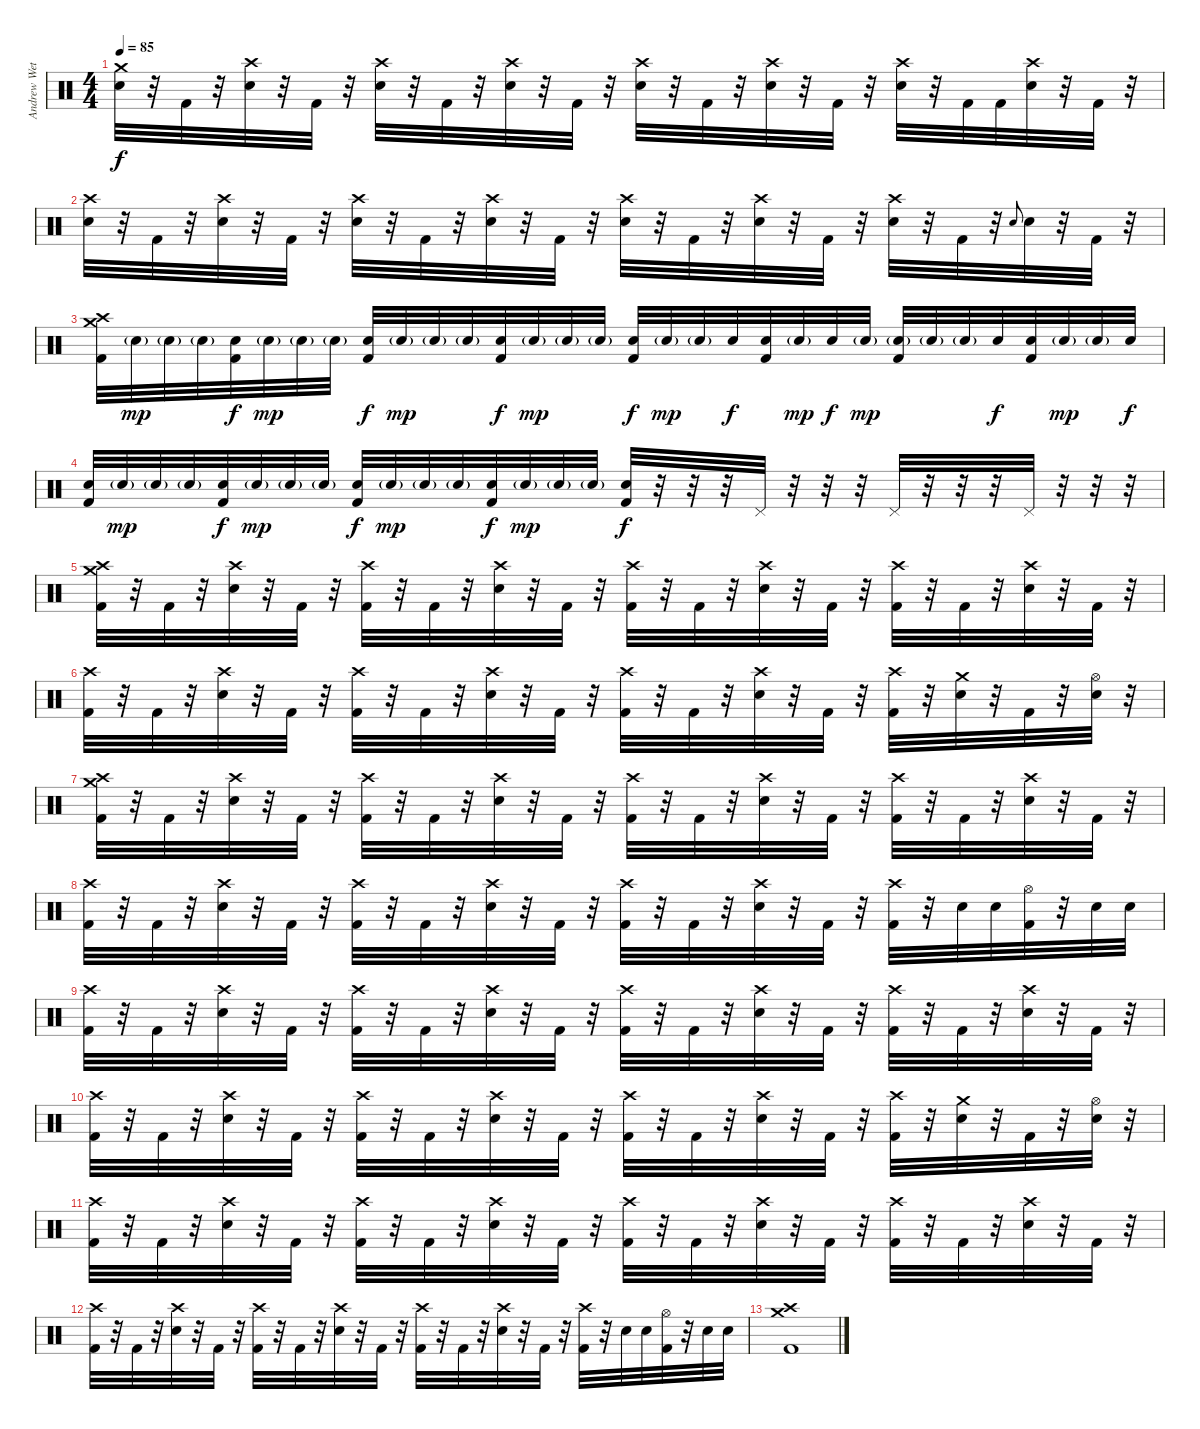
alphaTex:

\track ("Andrew Wetzel" "Andrew Wet") {instrument percussion}
\staff {score}
\articulation defaults
\ts (4 4)
\tempo 85
\clef neutral
\ks c
("Crash medium (hit)" "Electric Snare (hit)").32{dy f} r.32 "Kick (hit) 2".32 r.32 ("Crash high (hit)" "Electric Snare (hit)").32 r.32 "Kick (hit) 2".32 r.32 ("Crash high (hit)" "Electric Snare (hit)").32 r.32 "Kick (hit) 2".32 r.32 ("Crash high (hit)" "Electric Snare (hit)").32 r.32 "Kick (hit) 2".32 r.32 ("Crash high (hit)" "Electric Snare (hit)").32 r.32 "Kick (hit) 2".32 r.32 ("Crash high (hit)" "Electric Snare (hit)").32 r.32 "Kick (hit) 2".32 r.32 ("Crash high (hit)" "Electric Snare (hit)").32 r.32 "Kick (hit) 2".32 "Kick (hit) 2".32 ("Crash high (hit)" "Electric Snare (hit)").32 r.32 "Kick (hit) 2".32 r.32 |
("Crash high (hit)" "Electric Snare (hit)").32 r.32 "Kick (hit) 2".32 r.32 ("Crash high (hit)" "Electric Snare (hit)").32 r.32 "Kick (hit) 2".32 r.32 ("Crash high (hit)" "Electric Snare (hit)").32 r.32 "Kick (hit) 2".32 r.32 ("Crash high (hit)" "Electric Snare (hit)").32 r.32 "Kick (hit) 2".32 r.32 ("Crash high (hit)" "Electric Snare (hit)").32 r.32 "Kick (hit) 2".32 r.32 ("Crash high (hit)" "Electric Snare (hit)").32 r.32 "Kick (hit) 2".32 r.32 ("Crash high (hit)" "Electric Snare (hit)").32 r.32 "Kick (hit) 2".32 r.32 "Electric Snare (hit)".8{gr onbeat} "Electric Snare (hit)".32 r.32 "Kick (hit) 2".32 r.32 |
("Crash medium (hit)" "Crash high (hit)" "Kick (hit) 2").32 "Electric Snare (hit)"{g}.32{dy mp} "Electric Snare (hit)"{g}.32 "Electric Snare (hit)"{g}.32 ("Electric Snare (hit)" "Kick (hit) 2").32{dy f} "Electric Snare (hit)"{g}.32{dy mp} "Electric Snare (hit)"{g}.32 "Electric Snare (hit)"{g}.32 ("Electric Snare (hit)" "Kick (hit) 2").32{dy f} "Electric Snare (hit)"{g}.32{dy mp} "Electric Snare (hit)"{g}.32 "Electric Snare (hit)"{g}.32 ("Electric Snare (hit)" "Kick (hit) 2").32{dy f} "Electric Snare (hit)"{g}.32{dy mp} "Electric Snare (hit)"{g}.32 "Electric Snare (hit)"{g}.32 ("Electric Snare (hit)" "Kick (hit) 2").32{dy f} "Electric Snare (hit)"{g}.32{dy mp} "Electric Snare (hit)"{g}.32 "Electric Snare (hit)".32{dy f} ("Electric Snare (hit)" "Kick (hit) 2").32 "Electric Snare (hit)"{g}.32{dy mp} "Electric Snare (hit)".32{dy f} "Electric Snare (hit)"{g}.32{dy mp} ("Electric Snare (hit)"{g} "Kick (hit) 2").32 "Electric Snare (hit)"{g}.32 "Electric Snare (hit)"{g}.32 "Electric Snare (hit)".32{dy f} ("Electric Snare (hit)" "Kick (hit) 2").32 "Electric Snare (hit)"{g}.32{dy mp} "Electric Snare (hit)"{g}.32 "Electric Snare (hit)".32{dy f} |
("Electric Snare (hit)" "Kick (hit) 2").32 "Electric Snare (hit)"{g}.32{dy mp} "Electric Snare (hit)"{g}.32 "Electric Snare (hit)"{g}.32 ("Electric Snare (hit)" "Kick (hit) 2").32{dy f} "Electric Snare (hit)"{g}.32{dy mp} "Electric Snare (hit)"{g}.32 "Electric Snare (hit)"{g}.32 ("Electric Snare (hit)" "Kick (hit) 2").32{dy f} "Electric Snare (hit)"{g}.32{dy mp} "Electric Snare (hit)"{g}.32 "Electric Snare (hit)"{g}.32 ("Electric Snare (hit)" "Kick (hit) 2").32{dy f} "Electric Snare (hit)"{g}.32{dy mp} "Electric Snare (hit)"{g}.32 "Electric Snare (hit)"{g}.32 ("Electric Snare (hit)" "Kick (hit) 2").32{dy f} r.32 r.32 r.32 "Pedal Hi-Hat (hit)".32 r.32 r.32 r.32 "Pedal Hi-Hat (hit)".32 r.32 r.32 r.32 "Pedal Hi-Hat (hit)".32 r.32 r.32 r.32 |
("Crash medium (hit)" "Crash high (hit)" "Kick (hit) 2").32 r.32 "Kick (hit) 2".32 r.32 ("Crash high (hit)" "Electric Snare (hit)").32 r.32 "Kick (hit) 2".32 r.32 ("Crash high (hit)" "Kick (hit) 2").32 r.32 "Kick (hit) 2".32 r.32 ("Crash high (hit)" "Electric Snare (hit)").32 r.32 "Kick (hit) 2".32 r.32 ("Crash high (hit)" "Kick (hit) 2").32 r.32 "Kick (hit) 2".32 r.32 ("Crash high (hit)" "Electric Snare (hit)").32 r.32 "Kick (hit) 2".32 r.32 ("Crash high (hit)" "Kick (hit) 2").32 r.32 "Kick (hit) 2".32 r.32 ("Crash high (hit)" "Electric Snare (hit)").32 r.32 "Kick (hit) 2".32 r.32 |
("Crash high (hit)" "Kick (hit) 2").32 r.32 "Kick (hit) 2".32 r.32 ("Crash high (hit)" "Electric Snare (hit)").32 r.32 "Kick (hit) 2".32 r.32 ("Crash high (hit)" "Kick (hit) 2").32 r.32 "Kick (hit) 2".32 r.32 ("Crash high (hit)" "Electric Snare (hit)").32 r.32 "Kick (hit) 2".32 r.32 ("Crash high (hit)" "Kick (hit) 2").32 r.32 "Kick (hit) 2".32 r.32 ("Crash high (hit)" "Electric Snare (hit)").32 r.32 "Kick (hit) 2".32 r.32 ("Crash high (hit)" "Kick (hit) 2").32 r.32 ("Crash medium (hit)" "Electric Snare (hit)").32 r.32 "Kick (hit) 2".32 r.32 ("Hi-Hat (open)" "Electric Snare (hit)").32 r.32 |
("Crash medium (hit)" "Crash high (hit)" "Kick (hit) 2").32 r.32 "Kick (hit) 2".32 r.32 ("Crash high (hit)" "Electric Snare (hit)").32 r.32 "Kick (hit) 2".32 r.32 ("Crash high (hit)" "Kick (hit) 2").32 r.32 "Kick (hit) 2".32 r.32 ("Crash high (hit)" "Electric Snare (hit)").32 r.32 "Kick (hit) 2".32 r.32 ("Crash high (hit)" "Kick (hit) 2").32 r.32 "Kick (hit) 2".32 r.32 ("Crash high (hit)" "Electric Snare (hit)").32 r.32 "Kick (hit) 2".32 r.32 ("Crash high (hit)" "Kick (hit) 2").32 r.32 "Kick (hit) 2".32 r.32 ("Crash high (hit)" "Electric Snare (hit)").32 r.32 "Kick (hit) 2".32 r.32 |
("Crash high (hit)" "Kick (hit) 2").32 r.32 "Kick (hit) 2".32 r.32 ("Crash high (hit)" "Electric Snare (hit)").32 r.32 "Kick (hit) 2".32 r.32 ("Crash high (hit)" "Kick (hit) 2").32 r.32 "Kick (hit) 2".32 r.32 ("Crash high (hit)" "Electric Snare (hit)").32 r.32 "Kick (hit) 2".32 r.32 ("Crash high (hit)" "Kick (hit) 2").32 r.32 "Kick (hit) 2".32 r.32 ("Crash high (hit)" "Electric Snare (hit)").32 r.32 "Kick (hit) 2".32 r.32 ("Crash high (hit)" "Kick (hit) 2").32 r.32 "Electric Snare (hit)".32 "Electric Snare (hit)".32 ("Hi-Hat (open)" "Kick (hit) 2").32 r.32 "Electric Snare (hit)".32 "Electric Snare (hit)".32 |
("Crash high (hit)" "Kick (hit) 2").32 r.32 "Kick (hit) 2".32 r.32 ("Crash high (hit)" "Electric Snare (hit)").32 r.32 "Kick (hit) 2".32 r.32 ("Crash high (hit)" "Kick (hit) 2").32 r.32 "Kick (hit) 2".32 r.32 ("Crash high (hit)" "Electric Snare (hit)").32 r.32 "Kick (hit) 2".32 r.32 ("Crash high (hit)" "Kick (hit) 2").32 r.32 "Kick (hit) 2".32 r.32 ("Crash high (hit)" "Electric Snare (hit)").32 r.32 "Kick (hit) 2".32 r.32 ("Crash high (hit)" "Kick (hit) 2").32 r.32 "Kick (hit) 2".32 r.32 ("Crash high (hit)" "Electric Snare (hit)").32 r.32 "Kick (hit) 2".32 r.32 |
("Crash high (hit)" "Kick (hit) 2").32 r.32 "Kick (hit) 2".32 r.32 ("Crash high (hit)" "Electric Snare (hit)").32 r.32 "Kick (hit) 2".32 r.32 ("Crash high (hit)" "Kick (hit) 2").32 r.32 "Kick (hit) 2".32 r.32 ("Crash high (hit)" "Electric Snare (hit)").32 r.32 "Kick (hit) 2".32 r.32 ("Crash high (hit)" "Kick (hit) 2").32 r.32 "Kick (hit) 2".32 r.32 ("Crash high (hit)" "Electric Snare (hit)").32 r.32 "Kick (hit) 2".32 r.32 ("Crash high (hit)" "Kick (hit) 2").32 r.32 ("Crash medium (hit)" "Electric Snare (hit)").32 r.32 "Kick (hit) 2".32 r.32 ("Hi-Hat (open)" "Electric Snare (hit)").32 r.32 |
("Crash high (hit)" "Kick (hit) 2").32 r.32 "Kick (hit) 2".32 r.32 ("Crash high (hit)" "Electric Snare (hit)").32 r.32 "Kick (hit) 2".32 r.32 ("Crash high (hit)" "Kick (hit) 2").32 r.32 "Kick (hit) 2".32 r.32 ("Crash high (hit)" "Electric Snare (hit)").32 r.32 "Kick (hit) 2".32 r.32 ("Crash high (hit)" "Kick (hit) 2").32 r.32 "Kick (hit) 2".32 r.32 ("Crash high (hit)" "Electric Snare (hit)").32 r.32 "Kick (hit) 2".32 r.32 ("Crash high (hit)" "Kick (hit) 2").32 r.32 "Kick (hit) 2".32 r.32 ("Crash high (hit)" "Electric Snare (hit)").32 r.32 "Kick (hit) 2".32 r.32 |
("Crash high (hit)" "Kick (hit) 2").32 r.32 "Kick (hit) 2".32 r.32 ("Crash high (hit)" "Electric Snare (hit)").32 r.32 "Kick (hit) 2".32 r.32 ("Crash high (hit)" "Kick (hit) 2").32 r.32 "Kick (hit) 2".32 r.32 ("Crash high (hit)" "Electric Snare (hit)").32 r.32 "Kick (hit) 2".32 r.32 ("Crash high (hit)" "Kick (hit) 2").32 r.32 "Kick (hit) 2".32 r.32 ("Crash high (hit)" "Electric Snare (hit)").32 r.32 "Kick (hit) 2".32 r.32 ("Crash high (hit)" "Kick (hit) 2").32 r.32 "Electric Snare (hit)".32 "Electric Snare (hit)".32 ("Hi-Hat (open)" "Kick (hit) 2").32 r.32 "Electric Snare (hit)".32 "Electric Snare (hit)".32 |
("Crash medium (hit)" "Crash high (hit)" "Kick (hit) 2").1
